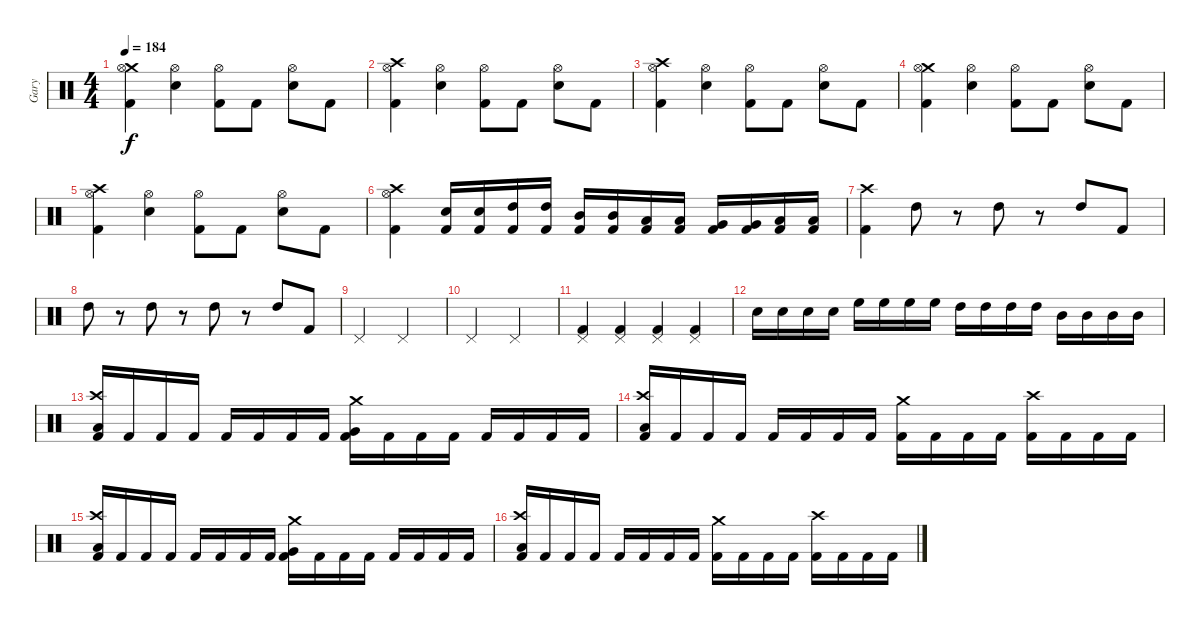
\track ("Gary" "Gary") {instrument percussion}
\staff {score}
\articulation defaults
\ts (4 4)
\tempo 184
\clef neutral
\ks c
("Crash medium (hit)" "Hi-Hat (open)" "Kick (hit) 2").4{dy f} ("Hi-Hat (open)" "Snare (hit) 2").4 ("Hi-Hat (open)" "Kick (hit) 2").8 "Kick (hit) 2".8 ("Hi-Hat (open)" "Snare (hit) 2").8 "Kick (hit) 2".8 |
("Crash high (hit)" "Hi-Hat (open)" "Kick (hit) 2").4 ("Hi-Hat (open)" "Snare (hit) 2").4 ("Hi-Hat (open)" "Kick (hit) 2").8 "Kick (hit) 2".8 ("Hi-Hat (open)" "Snare (hit) 2").8 "Kick (hit) 2".8 |
("Crash high (hit)" "Hi-Hat (open)" "Kick (hit) 2").4 ("Hi-Hat (open)" "Snare (hit) 2").4 ("Hi-Hat (open)" "Kick (hit) 2").8 "Kick (hit) 2".8 ("Hi-Hat (open)" "Snare (hit) 2").8 "Kick (hit) 2".8 |
("Crash medium (hit)" "Hi-Hat (open)" "Kick (hit) 2").4 ("Hi-Hat (open)" "Snare (hit) 2").4 ("Hi-Hat (open)" "Kick (hit) 2").8 "Kick (hit) 2".8 ("Hi-Hat (open)" "Snare (hit) 2").8 "Kick (hit) 2".8 |
("Crash high (hit)" "Hi-Hat (open)" "Kick (hit) 2").4 ("Hi-Hat (open)" "Snare (hit) 2").4 ("Hi-Hat (open)" "Kick (hit) 2").8 "Kick (hit) 2".8 ("Hi-Hat (open)" "Snare (hit) 2").8 "Kick (hit) 2".8 |
("Crash high (hit)" "Hi-Hat (open)" "Kick (hit) 2").4 ("Snare (hit) 2" "Kick (hit) 2").16 ("Snare (hit) 2" "Kick (hit) 2").16 ("High Tom (hit)" "Kick (hit) 2").16 ("High Tom (hit)" "Kick (hit) 2").16 ("Mid Tom (hit)" "Kick (hit) 2").16 ("Mid Tom (hit)" "Kick (hit) 2").16 ("Low Tom (hit)" "Kick (hit) 2").16 ("Low Tom (hit)" "Kick (hit) 2").16 ("Very Low Tom (hit)" "Kick (hit) 2").16 ("Very Low Tom (hit)" "Kick (hit) 2").16 ("Low Floor Tom (hit)" "Kick (hit) 2").16 ("Low Floor Tom (hit)" "Kick (hit) 2").16 |
("Crash high (hit)" "Kick (hit) 2").4 "High Tom (hit)".8 r.8 "High Tom (hit)".8 r.8 "High Tom (hit)".8 "Kick (hit) 2".8 |
"High Tom (hit)".8 r.8 "High Tom (hit)".8 r.8 "High Tom (hit)".8 r.8 "High Tom (hit)".8 "Kick (hit) 2".8 |
"Pedal Hi-Hat (hit)".2 "Pedal Hi-Hat (hit)".2 |
"Pedal Hi-Hat (hit)".2 "Pedal Hi-Hat (hit)".2 |
("Pedal Hi-Hat (hit)" "Kick (hit) 2").4 ("Pedal Hi-Hat (hit)" "Kick (hit) 2").4 ("Pedal Hi-Hat (hit)" "Kick (hit) 2").4 ("Pedal Hi-Hat (hit)" "Kick (hit) 2").4 |
"Electric Snare (hit)".16 "Electric Snare (hit)".16 "Electric Snare (hit)".16 "Electric Snare (hit)".16 "High Floor Tom (hit)".16 "High Floor Tom (hit)".16 "High Floor Tom (hit)".16 "High Floor Tom (hit)".16 "High Tom (hit)".16 "High Tom (hit)".16 "High Tom (hit)".16 "High Tom (hit)".16 "Mid Tom (hit)".16 "Mid Tom (hit)".16 "Mid Tom (hit)".16 "Mid Tom (hit)".16 |
("Crash high (hit)" "Low Floor Tom (hit)" "Kick (hit) 2").16 "Kick (hit) 2".16 "Kick (hit) 2".16 "Kick (hit) 2".16 "Kick (hit) 2".16 "Kick (hit) 2".16 "Kick (hit) 2".16 "Kick (hit) 2".16 ("Crash medium (hit)" "Very Low Tom (hit)" "Kick (hit) 2").16 "Kick (hit) 2".16 "Kick (hit) 2".16 "Kick (hit) 2".16 "Kick (hit) 2".16 "Kick (hit) 2".16 "Kick (hit) 2".16 "Kick (hit) 2".16 |
("Crash high (hit)" "Low Floor Tom (hit)" "Kick (hit) 2").16 "Kick (hit) 2".16 "Kick (hit) 2".16 "Kick (hit) 2".16 "Kick (hit) 2".16 "Kick (hit) 2".16 "Kick (hit) 2".16 "Kick (hit) 2".16 ("Crash medium (hit)" "Kick (hit) 2").16 "Kick (hit) 2".16 "Kick (hit) 2".16 "Kick (hit) 2".16 ("Crash high (hit)" "Kick (hit) 2").16 "Kick (hit) 2".16 "Kick (hit) 2".16 "Kick (hit) 2".16 |
("Crash high (hit)" "Low Floor Tom (hit)" "Kick (hit) 2").16 "Kick (hit) 2".16 "Kick (hit) 2".16 "Kick (hit) 2".16 "Kick (hit) 2".16 "Kick (hit) 2".16 "Kick (hit) 2".16 "Kick (hit) 2".16 ("Crash medium (hit)" "Very Low Tom (hit)" "Kick (hit) 2").16 "Kick (hit) 2".16 "Kick (hit) 2".16 "Kick (hit) 2".16 "Kick (hit) 2".16 "Kick (hit) 2".16 "Kick (hit) 2".16 "Kick (hit) 2".16 |
("Crash high (hit)" "Low Floor Tom (hit)" "Kick (hit) 2").16 "Kick (hit) 2".16 "Kick (hit) 2".16 "Kick (hit) 2".16 "Kick (hit) 2".16 "Kick (hit) 2".16 "Kick (hit) 2".16 "Kick (hit) 2".16 ("Crash medium (hit)" "Kick (hit) 2").16 "Kick (hit) 2".16 "Kick (hit) 2".16 "Kick (hit) 2".16 ("Crash high (hit)" "Kick (hit) 2").16 "Kick (hit) 2".16 "Kick (hit) 2".16 "Kick (hit) 2".16
